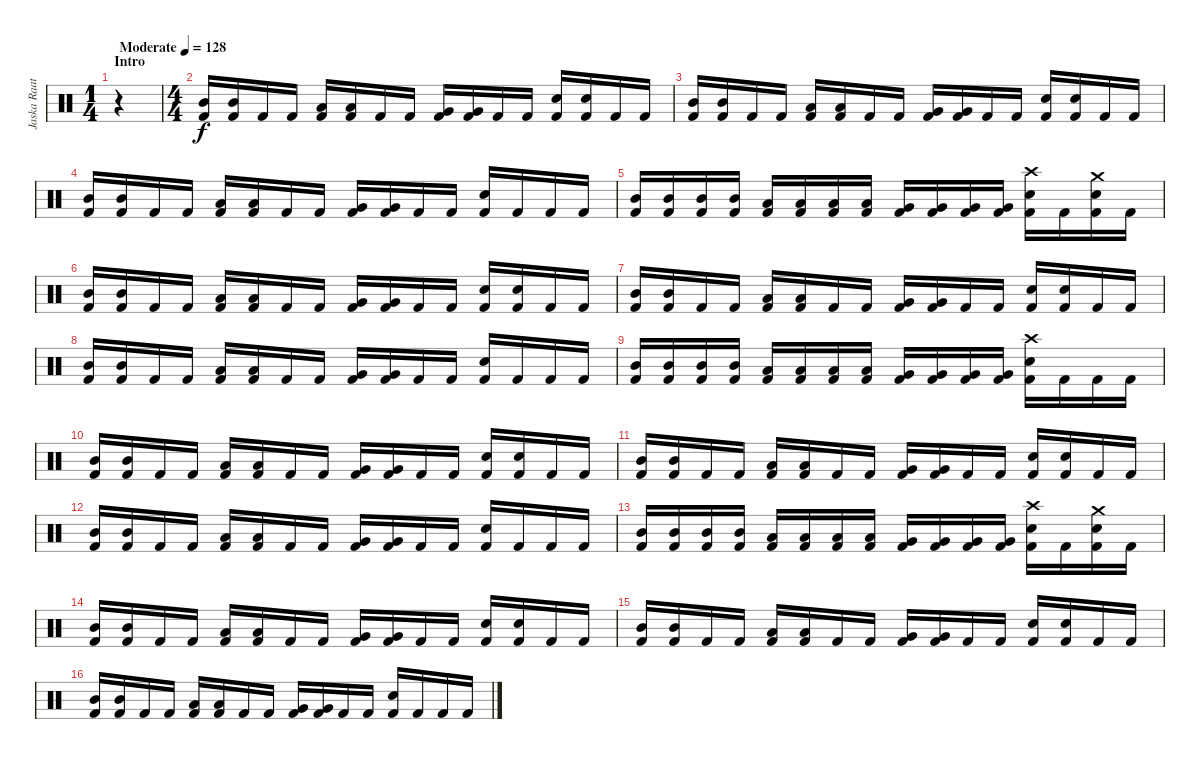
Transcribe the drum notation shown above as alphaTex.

\track ("Jaska Raatikainen" "Jaska Raat") {instrument percussion}
\staff {score}
\articulation defaults
\ts (1 4)
\section ("" "Intro")
\tempo (128 "Moderate")
\clef neutral
\ks c
r.4{dy f} |
\ts (4 4)
("Mid Tom (hit)" "Kick (hit) 2").16 ("Mid Tom (hit)" "Kick (hit) 2").16 "Kick (hit) 2".16 "Kick (hit) 2".16 ("Low Tom (hit)" "Kick (hit) 2").16 ("Low Tom (hit)" "Kick (hit) 2").16 "Kick (hit) 2".16 "Kick (hit) 2".16 ("Very Low Tom (hit)" "Kick (hit) 2").16 ("Very Low Tom (hit)" "Kick (hit) 2").16 "Kick (hit) 2".16 "Kick (hit) 2".16 ("Electric Snare (hit)" "Kick (hit) 2").16 ("Electric Snare (hit)" "Kick (hit) 2").16 "Kick (hit) 2".16 "Kick (hit) 2".16 |
("Mid Tom (hit)" "Kick (hit) 2").16 ("Mid Tom (hit)" "Kick (hit) 2").16 "Kick (hit) 2".16 "Kick (hit) 2".16 ("Low Tom (hit)" "Kick (hit) 2").16 ("Low Tom (hit)" "Kick (hit) 2").16 "Kick (hit) 2".16 "Kick (hit) 2".16 ("Very Low Tom (hit)" "Kick (hit) 2").16 ("Very Low Tom (hit)" "Kick (hit) 2").16 "Kick (hit) 2".16 "Kick (hit) 2".16 ("Electric Snare (hit)" "Kick (hit) 2").16 ("Electric Snare (hit)" "Kick (hit) 2").16 "Kick (hit) 2".16 "Kick (hit) 2".16 |
("Mid Tom (hit)" "Kick (hit) 2").16 ("Mid Tom (hit)" "Kick (hit) 2").16 "Kick (hit) 2".16 "Kick (hit) 2".16 ("Low Tom (hit)" "Kick (hit) 2").16 ("Low Tom (hit)" "Kick (hit) 2").16 "Kick (hit) 2".16 "Kick (hit) 2".16 ("Very Low Tom (hit)" "Kick (hit) 2").16 ("Very Low Tom (hit)" "Kick (hit) 2").16 "Kick (hit) 2".16 "Kick (hit) 2".16 ("Electric Snare (hit)" "Kick (hit) 2").16 "Kick (hit) 2".16 "Kick (hit) 2".16 "Kick (hit) 2".16 |
("Mid Tom (hit)" "Kick (hit) 2").16 ("Mid Tom (hit)" "Kick (hit) 2").16 ("Mid Tom (hit)" "Kick (hit) 2").16 ("Mid Tom (hit)" "Kick (hit) 2").16 ("Low Tom (hit)" "Kick (hit) 2").16 ("Low Tom (hit)" "Kick (hit) 2").16 ("Low Tom (hit)" "Kick (hit) 2").16 ("Low Tom (hit)" "Kick (hit) 2").16 ("Very Low Tom (hit)" "Kick (hit) 2").16 ("Very Low Tom (hit)" "Kick (hit) 2").16 ("Very Low Tom (hit)" "Kick (hit) 2").16 ("Very Low Tom (hit)" "Kick (hit) 2").16 ("Crash high (hit)" "Electric Snare (hit)" "Kick (hit) 2").16 "Kick (hit) 2".16 ("Crash medium (hit)" "Electric Snare (hit)" "Kick (hit) 2").16 "Kick (hit) 2".16 |
("Mid Tom (hit)" "Kick (hit) 2").16 ("Mid Tom (hit)" "Kick (hit) 2").16 "Kick (hit) 2".16 "Kick (hit) 2".16 ("Low Tom (hit)" "Kick (hit) 2").16 ("Low Tom (hit)" "Kick (hit) 2").16 "Kick (hit) 2".16 "Kick (hit) 2".16 ("Very Low Tom (hit)" "Kick (hit) 2").16 ("Very Low Tom (hit)" "Kick (hit) 2").16 "Kick (hit) 2".16 "Kick (hit) 2".16 ("Electric Snare (hit)" "Kick (hit) 2").16 ("Electric Snare (hit)" "Kick (hit) 2").16 "Kick (hit) 2".16 "Kick (hit) 2".16 |
("Mid Tom (hit)" "Kick (hit) 2").16 ("Mid Tom (hit)" "Kick (hit) 2").16 "Kick (hit) 2".16 "Kick (hit) 2".16 ("Low Tom (hit)" "Kick (hit) 2").16 ("Low Tom (hit)" "Kick (hit) 2").16 "Kick (hit) 2".16 "Kick (hit) 2".16 ("Very Low Tom (hit)" "Kick (hit) 2").16 ("Very Low Tom (hit)" "Kick (hit) 2").16 "Kick (hit) 2".16 "Kick (hit) 2".16 ("Electric Snare (hit)" "Kick (hit) 2").16 ("Electric Snare (hit)" "Kick (hit) 2").16 "Kick (hit) 2".16 "Kick (hit) 2".16 |
("Mid Tom (hit)" "Kick (hit) 2").16 ("Mid Tom (hit)" "Kick (hit) 2").16 "Kick (hit) 2".16 "Kick (hit) 2".16 ("Low Tom (hit)" "Kick (hit) 2").16 ("Low Tom (hit)" "Kick (hit) 2").16 "Kick (hit) 2".16 "Kick (hit) 2".16 ("Very Low Tom (hit)" "Kick (hit) 2").16 ("Very Low Tom (hit)" "Kick (hit) 2").16 "Kick (hit) 2".16 "Kick (hit) 2".16 ("Electric Snare (hit)" "Kick (hit) 2").16 "Kick (hit) 2".16 "Kick (hit) 2".16 "Kick (hit) 2".16 |
("Mid Tom (hit)" "Kick (hit) 2").16 ("Mid Tom (hit)" "Kick (hit) 2").16 ("Mid Tom (hit)" "Kick (hit) 2").16 ("Mid Tom (hit)" "Kick (hit) 2").16 ("Low Tom (hit)" "Kick (hit) 2").16 ("Low Tom (hit)" "Kick (hit) 2").16 ("Low Tom (hit)" "Kick (hit) 2").16 ("Low Tom (hit)" "Kick (hit) 2").16 ("Very Low Tom (hit)" "Kick (hit) 2").16 ("Very Low Tom (hit)" "Kick (hit) 2").16 ("Very Low Tom (hit)" "Kick (hit) 2").16 ("Very Low Tom (hit)" "Kick (hit) 2").16 ("Crash high (hit)" "Electric Snare (hit)" "Kick (hit) 2").16 "Kick (hit) 2".16 "Kick (hit) 2".16 "Kick (hit) 2".16 |
("Mid Tom (hit)" "Kick (hit) 2").16 ("Mid Tom (hit)" "Kick (hit) 2").16 "Kick (hit) 2".16 "Kick (hit) 2".16 ("Low Tom (hit)" "Kick (hit) 2").16 ("Low Tom (hit)" "Kick (hit) 2").16 "Kick (hit) 2".16 "Kick (hit) 2".16 ("Very Low Tom (hit)" "Kick (hit) 2").16 ("Very Low Tom (hit)" "Kick (hit) 2").16 "Kick (hit) 2".16 "Kick (hit) 2".16 ("Electric Snare (hit)" "Kick (hit) 2").16 ("Electric Snare (hit)" "Kick (hit) 2").16 "Kick (hit) 2".16 "Kick (hit) 2".16 |
("Mid Tom (hit)" "Kick (hit) 2").16 ("Mid Tom (hit)" "Kick (hit) 2").16 "Kick (hit) 2".16 "Kick (hit) 2".16 ("Low Tom (hit)" "Kick (hit) 2").16 ("Low Tom (hit)" "Kick (hit) 2").16 "Kick (hit) 2".16 "Kick (hit) 2".16 ("Very Low Tom (hit)" "Kick (hit) 2").16 ("Very Low Tom (hit)" "Kick (hit) 2").16 "Kick (hit) 2".16 "Kick (hit) 2".16 ("Electric Snare (hit)" "Kick (hit) 2").16 ("Electric Snare (hit)" "Kick (hit) 2").16 "Kick (hit) 2".16 "Kick (hit) 2".16 |
("Mid Tom (hit)" "Kick (hit) 2").16 ("Mid Tom (hit)" "Kick (hit) 2").16 "Kick (hit) 2".16 "Kick (hit) 2".16 ("Low Tom (hit)" "Kick (hit) 2").16 ("Low Tom (hit)" "Kick (hit) 2").16 "Kick (hit) 2".16 "Kick (hit) 2".16 ("Very Low Tom (hit)" "Kick (hit) 2").16 ("Very Low Tom (hit)" "Kick (hit) 2").16 "Kick (hit) 2".16 "Kick (hit) 2".16 ("Electric Snare (hit)" "Kick (hit) 2").16 "Kick (hit) 2".16 "Kick (hit) 2".16 "Kick (hit) 2".16 |
("Mid Tom (hit)" "Kick (hit) 2").16 ("Mid Tom (hit)" "Kick (hit) 2").16 ("Mid Tom (hit)" "Kick (hit) 2").16 ("Mid Tom (hit)" "Kick (hit) 2").16 ("Low Tom (hit)" "Kick (hit) 2").16 ("Low Tom (hit)" "Kick (hit) 2").16 ("Low Tom (hit)" "Kick (hit) 2").16 ("Low Tom (hit)" "Kick (hit) 2").16 ("Very Low Tom (hit)" "Kick (hit) 2").16 ("Very Low Tom (hit)" "Kick (hit) 2").16 ("Very Low Tom (hit)" "Kick (hit) 2").16 ("Very Low Tom (hit)" "Kick (hit) 2").16 ("Crash high (hit)" "Electric Snare (hit)" "Kick (hit) 2").16 "Kick (hit) 2".16 ("Crash medium (hit)" "Electric Snare (hit)" "Kick (hit) 2").16 "Kick (hit) 2".16 |
("Mid Tom (hit)" "Kick (hit) 2").16 ("Mid Tom (hit)" "Kick (hit) 2").16 "Kick (hit) 2".16 "Kick (hit) 2".16 ("Low Tom (hit)" "Kick (hit) 2").16 ("Low Tom (hit)" "Kick (hit) 2").16 "Kick (hit) 2".16 "Kick (hit) 2".16 ("Very Low Tom (hit)" "Kick (hit) 2").16 ("Very Low Tom (hit)" "Kick (hit) 2").16 "Kick (hit) 2".16 "Kick (hit) 2".16 ("Electric Snare (hit)" "Kick (hit) 2").16 ("Electric Snare (hit)" "Kick (hit) 2").16 "Kick (hit) 2".16 "Kick (hit) 2".16 |
("Mid Tom (hit)" "Kick (hit) 2").16 ("Mid Tom (hit)" "Kick (hit) 2").16 "Kick (hit) 2".16 "Kick (hit) 2".16 ("Low Tom (hit)" "Kick (hit) 2").16 ("Low Tom (hit)" "Kick (hit) 2").16 "Kick (hit) 2".16 "Kick (hit) 2".16 ("Very Low Tom (hit)" "Kick (hit) 2").16 ("Very Low Tom (hit)" "Kick (hit) 2").16 "Kick (hit) 2".16 "Kick (hit) 2".16 ("Electric Snare (hit)" "Kick (hit) 2").16 ("Electric Snare (hit)" "Kick (hit) 2").16 "Kick (hit) 2".16 "Kick (hit) 2".16 |
("Mid Tom (hit)" "Kick (hit) 2").16 ("Mid Tom (hit)" "Kick (hit) 2").16 "Kick (hit) 2".16 "Kick (hit) 2".16 ("Low Tom (hit)" "Kick (hit) 2").16 ("Low Tom (hit)" "Kick (hit) 2").16 "Kick (hit) 2".16 "Kick (hit) 2".16 ("Very Low Tom (hit)" "Kick (hit) 2").16 ("Very Low Tom (hit)" "Kick (hit) 2").16 "Kick (hit) 2".16 "Kick (hit) 2".16 ("Electric Snare (hit)" "Kick (hit) 2").16 "Kick (hit) 2".16 "Kick (hit) 2".16 "Kick (hit) 2".16
